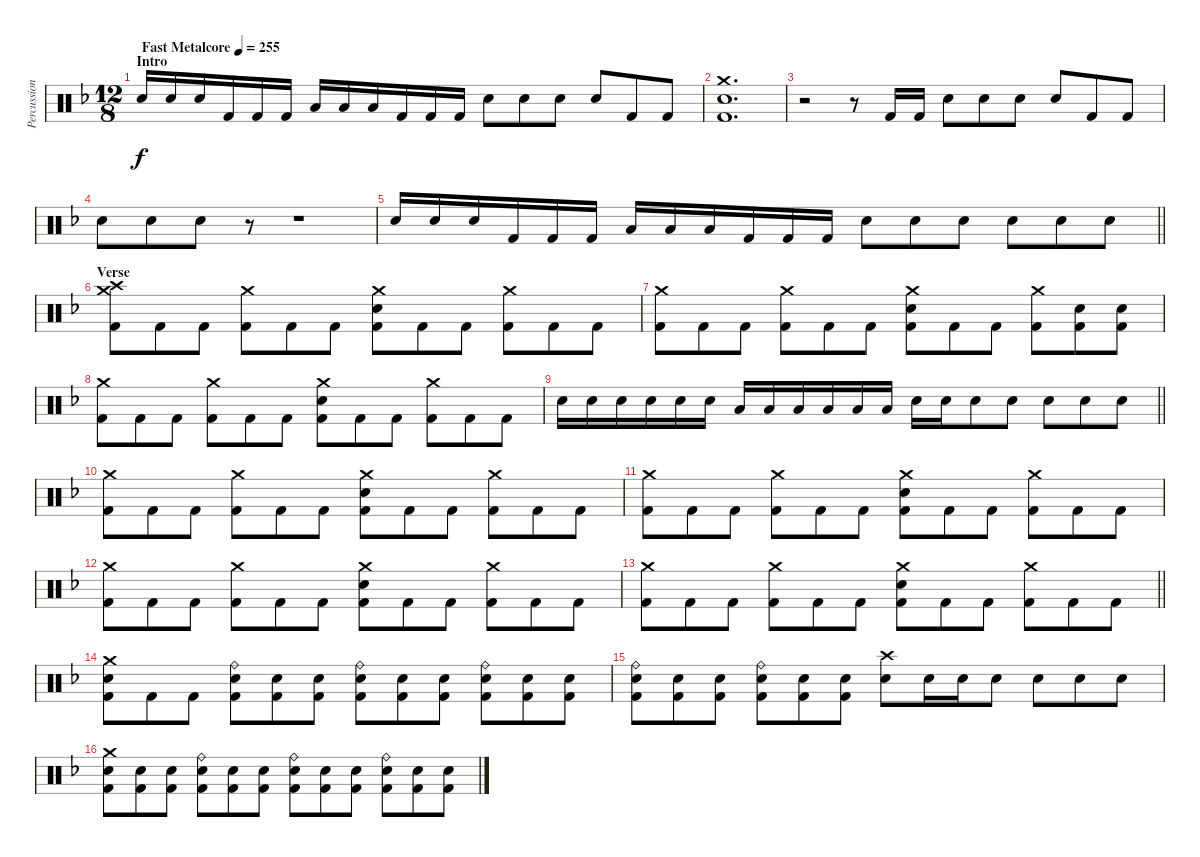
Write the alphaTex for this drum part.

\track ("Percussion" "Percussion") {instrument percussion}
\staff {score}
\articulation defaults
\ts (12 8)
\section ("" "Intro")
\tempo (255 "Fast Metalcore")
\clef neutral
\ks dminor "Electric Snare (hit)".16{dy f} "Electric Snare (hit)".16 "Electric Snare (hit)".16 "Kick (hit) 2".16 "Kick (hit) 2".16 "Kick (hit) 2".16 "Low Tom (hit)".16 "Low Tom (hit)".16 "Low Tom (hit)".16 "Kick (hit) 2".16 "Kick (hit) 2".16 "Kick (hit) 2".16 "Electric Snare (hit)".8 "Electric Snare (hit)".8 "Electric Snare (hit)".8 "Electric Snare (hit)".8 "Kick (hit) 2".8 "Kick (hit) 2".8
|
("Crash medium (hit)" "Electric Snare (hit)" "Kick (hit) 2").1{d} |
r.2 r.8 "Kick (hit) 2".16 "Kick (hit) 2".16 "Electric Snare (hit)".8 "Electric Snare (hit)".8 "Electric Snare (hit)".8 "Electric Snare (hit)".8 "Kick (hit) 2".8 "Kick (hit) 2".8 |
"Electric Snare (hit)".8 "Electric Snare (hit)".8 "Electric Snare (hit)".8 r.8 r.1 |
\barLineRight lightlight "Electric Snare (hit)".16 "Electric Snare (hit)".16 "Electric Snare (hit)".16 "Kick (hit) 2".16 "Kick (hit) 2".16 "Kick (hit) 2".16 "Low Tom (hit)".16 "Low Tom (hit)".16 "Low Tom (hit)".16 "Kick (hit) 2".16 "Kick (hit) 2".16 "Kick (hit) 2".16 "Electric Snare (hit)".8 "Electric Snare (hit)".8 "Electric Snare (hit)".8 "Electric Snare (hit)".8 "Electric Snare (hit)".8 "Electric Snare (hit)".8
|
\section ("" "Verse")
("Crash medium (hit)" "Crash high (hit)" "Kick (hit) 2").8 "Kick (hit) 2".8 "Kick (hit) 2".8 ("Crash medium (hit)" "Kick (hit) 2").8 "Kick (hit) 2".8 "Kick (hit) 2".8 ("Crash medium (hit)" "Electric Snare (hit)" "Kick (hit) 2").8 "Kick (hit) 2".8 "Kick (hit) 2".8 ("Crash medium (hit)" "Kick (hit) 2").8 "Kick (hit) 2".8 "Kick (hit) 2".8 |
("Crash medium (hit)" "Kick (hit) 2").8 "Kick (hit) 2".8 "Kick (hit) 2".8 ("Crash medium (hit)" "Kick (hit) 2").8 "Kick (hit) 2".8 "Kick (hit) 2".8 ("Crash medium (hit)" "Electric Snare (hit)" "Kick (hit) 2").8 "Kick (hit) 2".8 "Kick (hit) 2".8 ("Crash medium (hit)" "Kick (hit) 2").8 ("Electric Snare (hit)" "Kick (hit) 2").8 ("Electric Snare (hit)" "Kick (hit) 2").8 |
("Crash medium (hit)" "Kick (hit) 2").8 "Kick (hit) 2".8 "Kick (hit) 2".8 ("Crash medium (hit)" "Kick (hit) 2").8 "Kick (hit) 2".8 "Kick (hit) 2".8 ("Crash medium (hit)" "Electric Snare (hit)" "Kick (hit) 2").8 "Kick (hit) 2".8 "Kick (hit) 2".8 ("Crash medium (hit)" "Kick (hit) 2").8 "Kick (hit) 2".8 "Kick (hit) 2".8 |
\barLineRight lightlight "Electric Snare (hit)".16 "Electric Snare (hit)".16 "Electric Snare (hit)".16 "Electric Snare (hit)".16 "Electric Snare (hit)".16 "Electric Snare (hit)".16 "Low Tom (hit)".16 "Low Tom (hit)".16 "Low Tom (hit)".16 "Low Tom (hit)".16 "Low Tom (hit)".16 "Low Tom (hit)".16 "Electric Snare (hit)".16 "Electric Snare (hit)".16 "Electric Snare (hit)".8 "Electric Snare (hit)".8 "Electric Snare (hit)".8 "Electric Snare (hit)".8 "Electric Snare (hit)".8
|
("Crash medium (hit)" "Kick (hit) 2").8 "Kick (hit) 2".8 "Kick (hit) 2".8 ("Crash medium (hit)" "Kick (hit) 2").8 "Kick (hit) 2".8 "Kick (hit) 2".8 ("Crash medium (hit)" "Electric Snare (hit)" "Kick (hit) 2").8 "Kick (hit) 2".8 "Kick (hit) 2".8 ("Crash medium (hit)" "Kick (hit) 2").8 "Kick (hit) 2".8 "Kick (hit) 2".8 |
("Crash medium (hit)" "Kick (hit) 2").8 "Kick (hit) 2".8 "Kick (hit) 2".8 ("Crash medium (hit)" "Kick (hit) 2").8 "Kick (hit) 2".8 "Kick (hit) 2".8 ("Crash medium (hit)" "Electric Snare (hit)" "Kick (hit) 2").8 "Kick (hit) 2".8 "Kick (hit) 2".8 ("Crash medium (hit)" "Kick (hit) 2").8 "Kick (hit) 2".8 "Kick (hit) 2".8 |
("Crash medium (hit)" "Kick (hit) 2").8 "Kick (hit) 2".8 "Kick (hit) 2".8 ("Crash medium (hit)" "Kick (hit) 2").8 "Kick (hit) 2".8 "Kick (hit) 2".8 ("Crash medium (hit)" "Electric Snare (hit)" "Kick (hit) 2").8 "Kick (hit) 2".8 "Kick (hit) 2".8 ("Crash medium (hit)" "Kick (hit) 2").8 "Kick (hit) 2".8 "Kick (hit) 2".8 |
\barLineRight lightlight
("Crash medium (hit)" "Kick (hit) 2").8 "Kick (hit) 2".8 "Kick (hit) 2".8 ("Crash medium (hit)" "Kick (hit) 2").8 "Kick (hit) 2".8 "Kick (hit) 2".8 ("Crash medium (hit)" "Electric Snare (hit)" "Kick (hit) 2").8 "Kick (hit) 2".8 "Kick (hit) 2".8 ("Crash medium (hit)" "Kick (hit) 2").8 "Kick (hit) 2".8 "Kick (hit) 2".8 |
("Crash medium (hit)" "Electric Snare (hit)" "Kick (hit) 2").8 "Kick (hit) 2".8 "Kick (hit) 2".8 ("Ride (bell)" "Electric Snare (hit)" "Kick (hit) 2").8 ("Electric Snare (hit)" "Kick (hit) 2").8 ("Electric Snare (hit)" "Kick (hit) 2").8 ("Ride (bell)" "Electric Snare (hit)" "Kick (hit) 2").8 ("Electric Snare (hit)" "Kick (hit) 2").8 ("Electric Snare (hit)" "Kick (hit) 2").8 ("Ride (bell)" "Electric Snare (hit)" "Kick (hit) 2").8 ("Electric Snare (hit)" "Kick (hit) 2").8 ("Electric Snare (hit)" "Kick (hit) 2").8 |
("Ride (bell)" "Electric Snare (hit)" "Kick (hit) 2").8 ("Electric Snare (hit)" "Kick (hit) 2").8 ("Electric Snare (hit)" "Kick (hit) 2").8 ("Ride (bell)" "Electric Snare (hit)" "Kick (hit) 2").8 ("Electric Snare (hit)" "Kick (hit) 2").8 ("Electric Snare (hit)" "Kick (hit) 2").8 ("Crash high (hit)" "Electric Snare (hit)").8 "Electric Snare (hit)".16 "Electric Snare (hit)".16 "Electric Snare (hit)".8 "Electric Snare (hit)".8 "Electric Snare (hit)".8 "Electric Snare (hit)".8 |
("Crash medium (hit)" "Electric Snare (hit)" "Kick (hit) 2").8 ("Electric Snare (hit)" "Kick (hit) 2").8 ("Electric Snare (hit)" "Kick (hit) 2").8 ("Ride (bell)" "Electric Snare (hit)" "Kick (hit) 2").8 ("Electric Snare (hit)" "Kick (hit) 2").8 ("Electric Snare (hit)" "Kick (hit) 2").8 ("Ride (bell)" "Electric Snare (hit)" "Kick (hit) 2").8 ("Electric Snare (hit)" "Kick (hit) 2").8 ("Electric Snare (hit)" "Kick (hit) 2").8 ("Ride (bell)" "Electric Snare (hit)" "Kick (hit) 2").8 ("Electric Snare (hit)" "Kick (hit) 2").8 ("Electric Snare (hit)" "Kick (hit) 2").8
